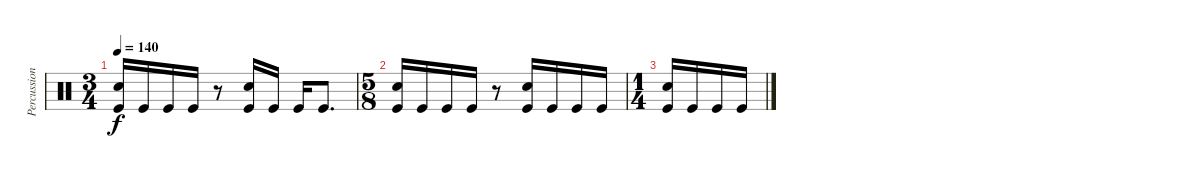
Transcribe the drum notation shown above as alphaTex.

\track ("Percussion" "Percussion") {instrument percussion}
\staff {score}
\articulation defaults
\ts (3 4)
\tempo 140
\clef neutral
\ks c
("Electric Snare (hit)" "Kick (hit)").16{dy f} "Kick (hit)".16 "Kick (hit)".16 "Kick (hit)".16 r.8 ("Electric Snare (hit)" "Kick (hit)").16 "Kick (hit)".16 "Kick (hit)".16 "Kick (hit)".8{d} |
\ts (5 8)
("Electric Snare (hit)" "Kick (hit)").16 "Kick (hit)".16 "Kick (hit)".16 "Kick (hit)".16 r.8 ("Electric Snare (hit)" "Kick (hit)").16 "Kick (hit)".16 "Kick (hit)".16 "Kick (hit)".16 |
\ts (1 4)
("Electric Snare (hit)" "Kick (hit)").16 "Kick (hit)".16 "Kick (hit)".16 "Kick (hit)".16
